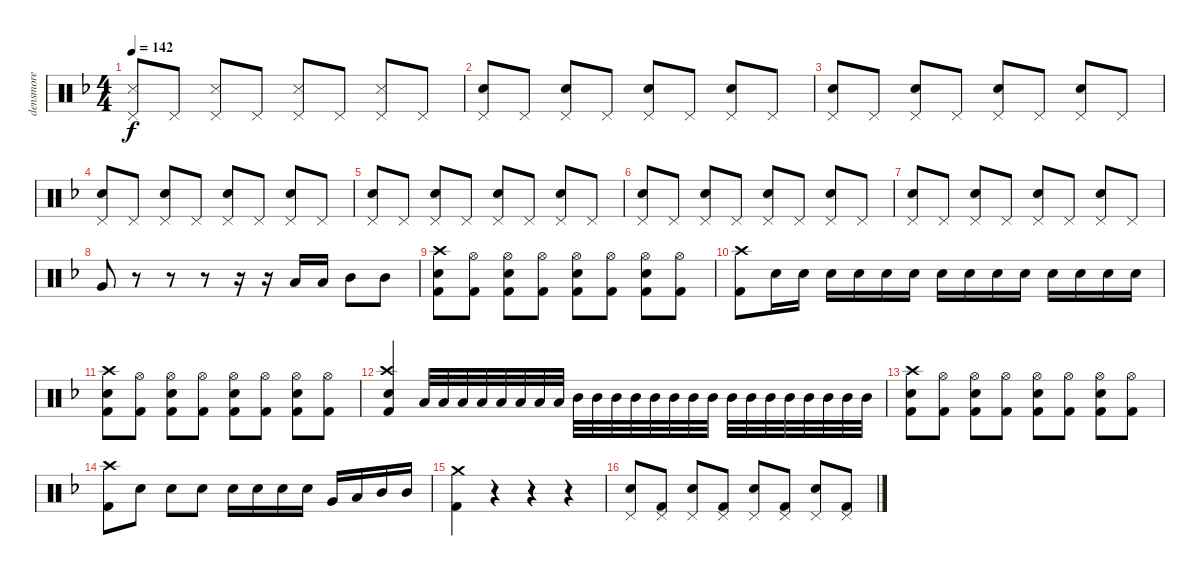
\track ("densmore" "densmore") {instrument percussion}
\staff {score}
\articulation defaults
\ts (4 4)
\tempo 142
\clef neutral
\ks f
("Pedal Hi-Hat (hit)" "Snare (side stick) 3").8{dy f} "Pedal Hi-Hat (hit)".8 ("Pedal Hi-Hat (hit)" "Snare (side stick) 3").8 "Pedal Hi-Hat (hit)".8 ("Pedal Hi-Hat (hit)" "Snare (side stick) 3").8 "Pedal Hi-Hat (hit)".8 ("Pedal Hi-Hat (hit)" "Snare (side stick) 3").8 "Pedal Hi-Hat (hit)".8 |
("Pedal Hi-Hat (hit)" "Electric Snare (hit)").8 "Pedal Hi-Hat (hit)".8 ("Pedal Hi-Hat (hit)" "Electric Snare (hit)").8 "Pedal Hi-Hat (hit)".8 ("Pedal Hi-Hat (hit)" "Electric Snare (hit)").8 "Pedal Hi-Hat (hit)".8 ("Pedal Hi-Hat (hit)" "Electric Snare (hit)").8 "Pedal Hi-Hat (hit)".8 |
("Pedal Hi-Hat (hit)" "Electric Snare (hit)").8 "Pedal Hi-Hat (hit)".8 ("Pedal Hi-Hat (hit)" "Electric Snare (hit)").8 "Pedal Hi-Hat (hit)".8 ("Pedal Hi-Hat (hit)" "Electric Snare (hit)").8 "Pedal Hi-Hat (hit)".8 ("Pedal Hi-Hat (hit)" "Electric Snare (hit)").8 "Pedal Hi-Hat (hit)".8 |
("Pedal Hi-Hat (hit)" "Electric Snare (hit)").8 "Pedal Hi-Hat (hit)".8 ("Pedal Hi-Hat (hit)" "Electric Snare (hit)").8 "Pedal Hi-Hat (hit)".8 ("Pedal Hi-Hat (hit)" "Electric Snare (hit)").8 "Pedal Hi-Hat (hit)".8 ("Pedal Hi-Hat (hit)" "Electric Snare (hit)").8 "Pedal Hi-Hat (hit)".8 |
("Pedal Hi-Hat (hit)" "Electric Snare (hit)").8 "Pedal Hi-Hat (hit)".8 ("Pedal Hi-Hat (hit)" "Electric Snare (hit)").8 "Pedal Hi-Hat (hit)".8 ("Pedal Hi-Hat (hit)" "Electric Snare (hit)").8 "Pedal Hi-Hat (hit)".8 ("Pedal Hi-Hat (hit)" "Electric Snare (hit)").8 "Pedal Hi-Hat (hit)".8 |
("Pedal Hi-Hat (hit)" "Electric Snare (hit)").8 "Pedal Hi-Hat (hit)".8 ("Pedal Hi-Hat (hit)" "Electric Snare (hit)").8 "Pedal Hi-Hat (hit)".8 ("Pedal Hi-Hat (hit)" "Electric Snare (hit)").8 "Pedal Hi-Hat (hit)".8 ("Pedal Hi-Hat (hit)" "Electric Snare (hit)").8 "Pedal Hi-Hat (hit)".8 |
("Pedal Hi-Hat (hit)" "Electric Snare (hit)").8 "Pedal Hi-Hat (hit)".8 ("Pedal Hi-Hat (hit)" "Electric Snare (hit)").8 "Pedal Hi-Hat (hit)".8 ("Pedal Hi-Hat (hit)" "Electric Snare (hit)").8 "Pedal Hi-Hat (hit)".8 ("Pedal Hi-Hat (hit)" "Electric Snare (hit)").8 "Pedal Hi-Hat (hit)".8 |
"Very Low Tom (hit)".8 r.8 r.8 r.8 r.16 r.16 "Low Tom (hit)".16 "Low Tom (hit)".16 "Mid Tom (hit)".8 "Mid Tom (hit)".8 |
("Crash high (hit)" "Kick (hit) 2" "Electric Snare (hit)").8 ("Hi-Hat (open)" "Kick (hit) 2").8 ("Hi-Hat (open)" "Electric Snare (hit)" "Kick (hit) 2").8 ("Hi-Hat (open)" "Kick (hit) 2").8 ("Hi-Hat (open)" "Electric Snare (hit)" "Kick (hit) 2").8 ("Hi-Hat (open)" "Kick (hit) 2").8 ("Hi-Hat (open)" "Electric Snare (hit)" "Kick (hit) 2").8 ("Hi-Hat (open)" "Kick (hit) 2").8 |
("Crash high (hit)" "Kick (hit) 2").8 "Electric Snare (hit)".16 "Electric Snare (hit)".16 "Electric Snare (hit)".16 "Electric Snare (hit)".16 "Electric Snare (hit)".16 "Electric Snare (hit)".16 "Electric Snare (hit)".16 "Electric Snare (hit)".16 "Electric Snare (hit)".16 "Electric Snare (hit)".16 "Electric Snare (hit)".16 "Electric Snare (hit)".16 "Electric Snare (hit)".16 "Electric Snare (hit)".16 |
("Crash high (hit)" "Kick (hit) 2" "Electric Snare (hit)").8 ("Hi-Hat (open)" "Kick (hit) 2").8 ("Hi-Hat (open)" "Electric Snare (hit)" "Kick (hit) 2").8 ("Hi-Hat (open)" "Kick (hit) 2").8 ("Hi-Hat (open)" "Electric Snare (hit)" "Kick (hit) 2").8 ("Hi-Hat (open)" "Kick (hit) 2").8 ("Hi-Hat (open)" "Electric Snare (hit)" "Kick (hit) 2").8 ("Hi-Hat (open)" "Kick (hit) 2").8 |
("Crash high (hit)" "Kick (hit) 2" "Electric Snare (hit)").4 "Low Tom (hit)".32 "Low Tom (hit)".32 "Low Tom (hit)".32 "Low Tom (hit)".32 "Low Tom (hit)".32 "Low Tom (hit)".32 "Low Tom (hit)".32 "Low Tom (hit)".32 "Mid Tom (hit)".32 "Mid Tom (hit)".32 "Mid Tom (hit)".32 "Mid Tom (hit)".32 "Mid Tom (hit)".32 "Mid Tom (hit)".32 "Mid Tom (hit)".32 "Mid Tom (hit)".32 "Mid Tom (hit)".32 "Mid Tom (hit)".32 "Mid Tom (hit)".32 "Mid Tom (hit)".32 "Mid Tom (hit)".32 "Mid Tom (hit)".32 "Mid Tom (hit)".32 "Mid Tom (hit)".32 |
("Crash high (hit)" "Kick (hit) 2" "Electric Snare (hit)").8 ("Hi-Hat (open)" "Kick (hit) 2").8 ("Hi-Hat (open)" "Electric Snare (hit)" "Kick (hit) 2").8 ("Hi-Hat (open)" "Kick (hit) 2").8 ("Hi-Hat (open)" "Electric Snare (hit)" "Kick (hit) 2").8 ("Hi-Hat (open)" "Kick (hit) 2").8 ("Hi-Hat (open)" "Electric Snare (hit)" "Kick (hit) 2").8 ("Hi-Hat (open)" "Kick (hit) 2").8 |
("Crash high (hit)" "Kick (hit) 2").8 "Electric Snare (hit)".8 "Electric Snare (hit)".8 "Electric Snare (hit)".8 "Electric Snare (hit)".16 "Electric Snare (hit)".16 "Electric Snare (hit)".16 "Electric Snare (hit)".16 "Very Low Tom (hit)".16 "Low Tom (hit)".16 "Mid Tom (hit)".16 "Mid Tom (hit)".16 |
("Crash medium (hit)" "Kick (hit) 2").4 r.4 r.4 r.4 |
("Pedal Hi-Hat (hit)" "Electric Snare (hit)").8 ("Pedal Hi-Hat (hit)" "Kick (hit) 2").8 ("Pedal Hi-Hat (hit)" "Electric Snare (hit)").8 ("Pedal Hi-Hat (hit)" "Kick (hit) 2").8 ("Pedal Hi-Hat (hit)" "Electric Snare (hit)").8 ("Pedal Hi-Hat (hit)" "Kick (hit) 2").8 ("Pedal Hi-Hat (hit)" "Electric Snare (hit)").8 ("Pedal Hi-Hat (hit)" "Kick (hit) 2").8
